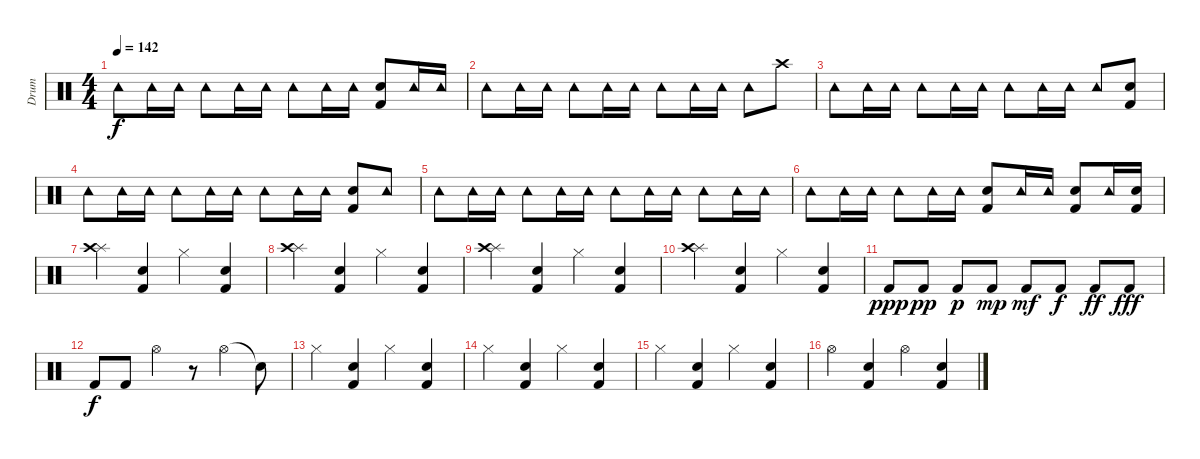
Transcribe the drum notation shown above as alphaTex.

\track ("Drum" "Drum") {instrument percussion}
\staff {score}
\articulation defaults
\ts (4 4)
\tempo 142
\clef neutral
\ks c "Tambourine (hit)".8{dy f} "Tambourine (hit)".16 "Tambourine (hit)".16 "Tambourine (hit)".8 "Tambourine (hit)".16 "Tambourine (hit)".16 "Tambourine (hit)".8 "Tambourine (hit)".16 "Tambourine (hit)".16
("Electric Snare (hit)" "Kick (hit) 2").8 "Tambourine (hit)".16 "Tambourine (hit)".16 |
"Tambourine (hit)".8 "Tambourine (hit)".16 "Tambourine (hit)".16 "Tambourine (hit)".8 "Tambourine (hit)".16 "Tambourine (hit)".16 "Tambourine (hit)".8 "Tambourine (hit)".16 "Tambourine (hit)".16 "Tambourine (hit)".8 "Crash high (hit)".8 |
"Tambourine (hit)".8 "Tambourine (hit)".16 "Tambourine (hit)".16 "Tambourine (hit)".8 "Tambourine (hit)".16 "Tambourine (hit)".16 "Tambourine (hit)".8 "Tambourine (hit)".16 "Tambourine (hit)".16 "Tambourine (hit)".8 ("Electric Snare (hit)" "Kick (hit) 2").8 |
"Tambourine (hit)".8 "Tambourine (hit)".16 "Tambourine (hit)".16 "Tambourine (hit)".8 "Tambourine (hit)".16 "Tambourine (hit)".16 "Tambourine (hit)".8 "Tambourine (hit)".16 "Tambourine (hit)".16 ("Electric Snare (hit)" "Kick (hit) 2").8 "Tambourine (hit)".8 |
"Tambourine (hit)".8 "Tambourine (hit)".16 "Tambourine (hit)".16 "Tambourine (hit)".8 "Tambourine (hit)".16 "Tambourine (hit)".16 "Tambourine (hit)".8 "Tambourine (hit)".16 "Tambourine (hit)".16 "Tambourine (hit)".8 "Tambourine (hit)".16 "Tambourine (hit)".16 |
"Tambourine (hit)".8 "Tambourine (hit)".16 "Tambourine (hit)".16 "Tambourine (hit)".8 "Tambourine (hit)".16 "Tambourine (hit)".16 ("Electric Snare (hit)" "Kick (hit) 2").8 "Tambourine (hit)".16 "Tambourine (hit)".16 ("Electric Snare (hit)" "Kick (hit) 2").8 "Tambourine (hit)".16 ("Electric Snare (hit)" "Kick (hit) 2").16 |
("Splash (hit)" "Crash high (hit)").4 ("Electric Snare (hit)" "Kick (hit) 2").4 "Hi-Hat (closed)".4 ("Electric Snare (hit)" "Kick (hit) 2").4 |
("Splash (hit)" "Crash high (hit)").4 ("Electric Snare (hit)" "Kick (hit) 2").4 "Hi-Hat (closed)".4 ("Electric Snare (hit)" "Kick (hit) 2").4 |
("Splash (hit)" "Crash high (hit)").4 ("Electric Snare (hit)" "Kick (hit) 2").4 "Hi-Hat (closed)".4 ("Electric Snare (hit)" "Kick (hit) 2").4 |
("Splash (hit)" "Crash high (hit)").4 ("Electric Snare (hit)" "Kick (hit) 2").4 "Hi-Hat (closed)".4 ("Electric Snare (hit)" "Kick (hit) 2").4 |
"Kick (hit) 2".8{dy ppp} "Kick (hit) 2".8{dy pp} "Kick (hit) 2".8{dy p} "Kick (hit) 2".8{dy mp} "Kick (hit) 2".8{dy mf} "Kick (hit) 2".8{dy f} "Kick (hit) 2".8{dy ff} "Kick (hit) 2".8{dy fff} |
"Kick (hit) 2".8{dy f} "Kick (hit) 2".8 "Hi-Hat (open)".4 r.8 "Hi-Hat (open)".4 "Snare (hit)"{t}.8 |
"Hi-Hat (closed)".4 ("Electric Snare (hit)" "Kick (hit) 2").4 "Hi-Hat (closed)".4 ("Electric Snare (hit)" "Kick (hit) 2").4 |
"Hi-Hat (closed)".4 ("Electric Snare (hit)" "Kick (hit) 2").4 "Hi-Hat (closed)".4 ("Electric Snare (hit)" "Kick (hit) 2").4 |
"Hi-Hat (closed)".4 ("Electric Snare (hit)" "Kick (hit) 2").4 "Hi-Hat (closed)".4 ("Electric Snare (hit)" "Kick (hit) 2").4 |
"Hi-Hat (open)".4 ("Electric Snare (hit)" "Kick (hit) 2").4 "Hi-Hat (open)".4 ("Electric Snare (hit)" "Kick (hit) 2").4
